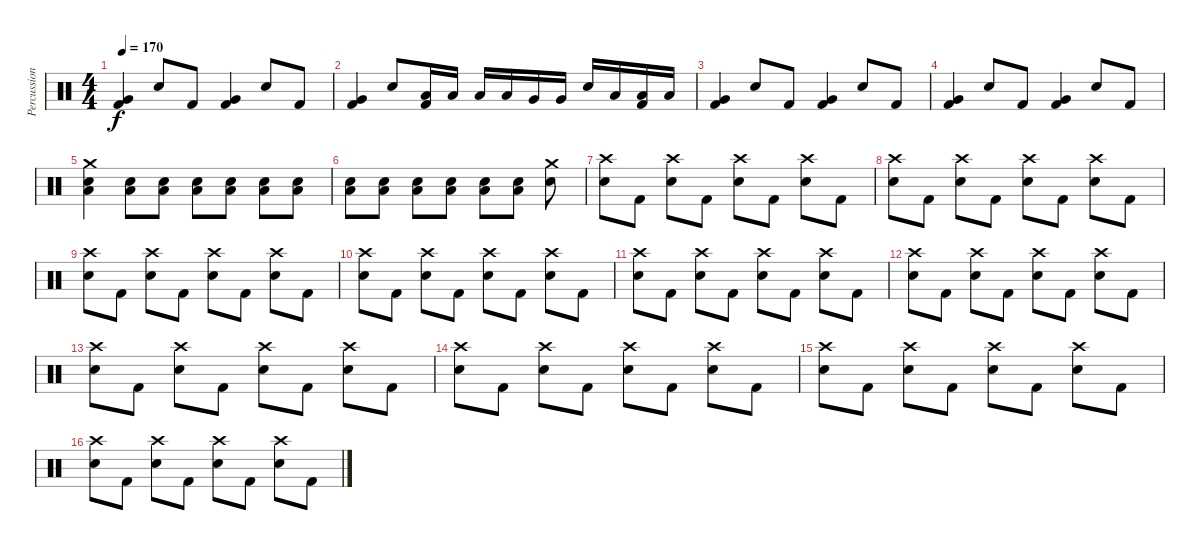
\track ("Percussion" "Percussion") {instrument percussion}
\staff {score}
\articulation defaults
\ts (4 4)
\tempo 170
\clef neutral
\ks c
("Very Low Tom (hit)" "Kick (hit) 2").4{dy f} "Electric Snare (hit)".8 "Kick (hit) 2".8 ("Very Low Tom (hit)" "Kick (hit) 2").4 "Electric Snare (hit)".8 "Kick (hit) 2".8 |
("Very Low Tom (hit)" "Kick (hit) 2").4 "Electric Snare (hit)".8 ("Low Tom (hit)" "Kick (hit) 2").16 "Low Tom (hit)".16 "Low Tom (hit)".16 "Low Tom (hit)".16 "Very Low Tom (hit)".16 "Very Low Tom (hit)".16 "Electric Snare (hit)".16 "Low Tom (hit)".16 ("Low Tom (hit)" "Kick (hit) 2").16 "Low Tom (hit)".16 |
("Very Low Tom (hit)" "Kick (hit) 2").4 "Electric Snare (hit)".8 "Kick (hit) 2".8 ("Very Low Tom (hit)" "Kick (hit) 2").4 "Electric Snare (hit)".8 "Kick (hit) 2".8 |
("Very Low Tom (hit)" "Kick (hit) 2").4 "Electric Snare (hit)".8 "Kick (hit) 2".8 ("Very Low Tom (hit)" "Kick (hit) 2").4 "Electric Snare (hit)".8 "Kick (hit) 2".8 |
("Crash medium (hit)" "Electric Snare (hit)" "Low Tom (hit)").4 ("Electric Snare (hit)" "Low Tom (hit)").8 ("Electric Snare (hit)" "Low Tom (hit)").8 ("Electric Snare (hit)" "Low Tom (hit)").8 ("Electric Snare (hit)" "Low Tom (hit)").8 ("Electric Snare (hit)" "Low Tom (hit)").8 ("Electric Snare (hit)" "Low Tom (hit)").8 |
("Electric Snare (hit)" "Low Tom (hit)").8 ("Electric Snare (hit)" "Low Tom (hit)").8 ("Electric Snare (hit)" "Low Tom (hit)").8 ("Electric Snare (hit)" "Low Tom (hit)").8 ("Electric Snare (hit)" "Low Tom (hit)").8 ("Electric Snare (hit)" "Low Tom (hit)").8 ("Crash medium (hit)" "Electric Snare (hit)").8 |
("Crash high (hit)" "Electric Snare (hit)").8 "Kick (hit) 2".8 ("Crash high (hit)" "Electric Snare (hit)").8 "Kick (hit) 2".8 ("Crash high (hit)" "Electric Snare (hit)").8 "Kick (hit) 2".8 ("Crash high (hit)" "Electric Snare (hit)").8 "Kick (hit) 2".8 |
("Crash high (hit)" "Electric Snare (hit)").8 "Kick (hit) 2".8 ("Crash high (hit)" "Electric Snare (hit)").8 "Kick (hit) 2".8 ("Crash high (hit)" "Electric Snare (hit)").8 "Kick (hit) 2".8 ("Crash high (hit)" "Electric Snare (hit)").8 "Kick (hit) 2".8 |
("Crash high (hit)" "Electric Snare (hit)").8 "Kick (hit) 2".8 ("Crash high (hit)" "Electric Snare (hit)").8 "Kick (hit) 2".8 ("Crash high (hit)" "Electric Snare (hit)").8 "Kick (hit) 2".8 ("Crash high (hit)" "Electric Snare (hit)").8 "Kick (hit) 2".8 |
("Crash high (hit)" "Electric Snare (hit)").8 "Kick (hit) 2".8 ("Crash high (hit)" "Electric Snare (hit)").8 "Kick (hit) 2".8 ("Crash high (hit)" "Electric Snare (hit)").8 "Kick (hit) 2".8 ("Crash high (hit)" "Electric Snare (hit)").8 "Kick (hit) 2".8 |
("Crash high (hit)" "Electric Snare (hit)").8 "Kick (hit) 2".8 ("Crash high (hit)" "Electric Snare (hit)").8 "Kick (hit) 2".8 ("Crash high (hit)" "Electric Snare (hit)").8 "Kick (hit) 2".8 ("Crash high (hit)" "Electric Snare (hit)").8 "Kick (hit) 2".8 |
("Crash high (hit)" "Electric Snare (hit)").8 "Kick (hit) 2".8 ("Crash high (hit)" "Electric Snare (hit)").8 "Kick (hit) 2".8 ("Crash high (hit)" "Electric Snare (hit)").8 "Kick (hit) 2".8 ("Crash high (hit)" "Electric Snare (hit)").8 "Kick (hit) 2".8 |
("Crash high (hit)" "Electric Snare (hit)").8 "Kick (hit) 2".8 ("Crash high (hit)" "Electric Snare (hit)").8 "Kick (hit) 2".8 ("Crash high (hit)" "Electric Snare (hit)").8 "Kick (hit) 2".8 ("Crash high (hit)" "Electric Snare (hit)").8 "Kick (hit) 2".8 |
("Crash high (hit)" "Electric Snare (hit)").8 "Kick (hit) 2".8 ("Crash high (hit)" "Electric Snare (hit)").8 "Kick (hit) 2".8 ("Crash high (hit)" "Electric Snare (hit)").8 "Kick (hit) 2".8 ("Crash high (hit)" "Electric Snare (hit)").8 "Kick (hit) 2".8 |
("Crash high (hit)" "Electric Snare (hit)").8 "Kick (hit) 2".8 ("Crash high (hit)" "Electric Snare (hit)").8 "Kick (hit) 2".8 ("Crash high (hit)" "Electric Snare (hit)").8 "Kick (hit) 2".8 ("Crash high (hit)" "Electric Snare (hit)").8 "Kick (hit) 2".8 |
("Crash high (hit)" "Electric Snare (hit)").8 "Kick (hit) 2".8 ("Crash high (hit)" "Electric Snare (hit)").8 "Kick (hit) 2".8 ("Crash high (hit)" "Electric Snare (hit)").8 "Kick (hit) 2".8 ("Crash high (hit)" "Electric Snare (hit)").8 "Kick (hit) 2".8
